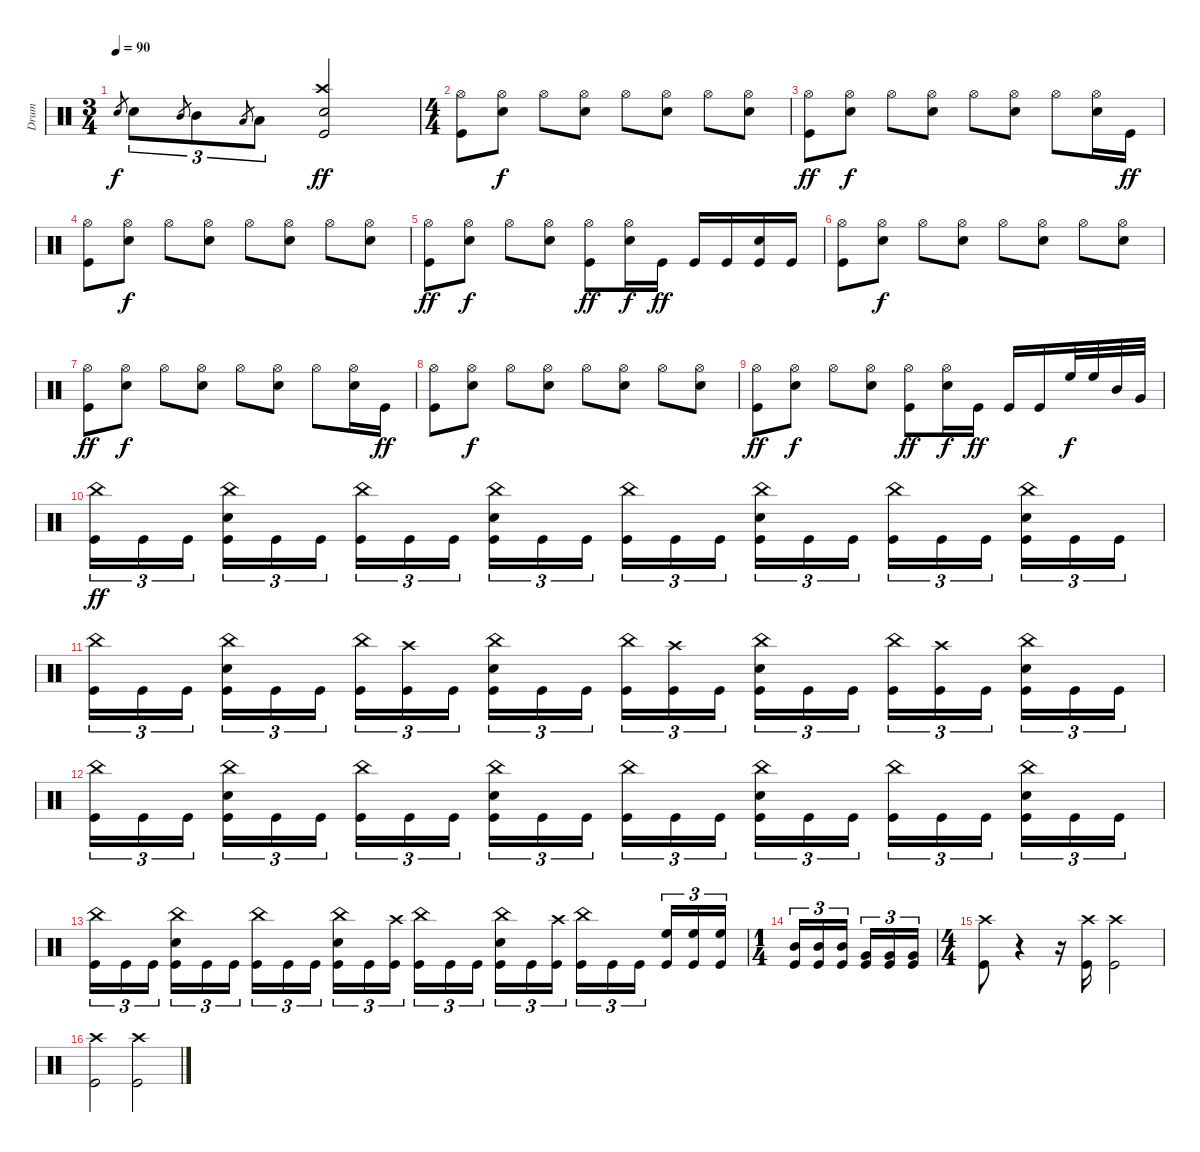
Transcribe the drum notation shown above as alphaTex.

\track ("Drum" "Drum") {instrument percussion}
\staff {score}
\articulation defaults
\ts (3 4)
\tempo 90
\clef neutral
\ks c "Snare (hit) 2".8{gr dy f} "Snare (hit) 2".8{tu (3 2)} "Mid Tom (hit)".8{gr} "Mid Tom (hit)".8{tu (3 2)} "Low Tom (hit)".8{gr} "Low Tom (hit)".8{tu (3 2)}
("Crash high (hit)" "Snare (hit) 2" "Kick (hit)").2{dy ff} |
\ts (4 4)
("Hi-Hat (open)" "Kick (hit)").8 ("Hi-Hat (open)" "Snare (hit) 2").8{dy f} "Hi-Hat (open)".8 ("Hi-Hat (open)" "Snare (hit) 2").8 "Hi-Hat (open)".8 ("Hi-Hat (open)" "Snare (hit) 2").8 "Hi-Hat (open)".8 ("Hi-Hat (open)" "Snare (hit) 2").8 |
("Hi-Hat (open)" "Kick (hit)").8{dy ff} ("Hi-Hat (open)" "Snare (hit) 2").8{dy f} "Hi-Hat (open)".8 ("Hi-Hat (open)" "Snare (hit) 2").8 "Hi-Hat (open)".8 ("Hi-Hat (open)" "Snare (hit) 2").8 "Hi-Hat (open)".8 ("Hi-Hat (open)" "Snare (hit) 2").16 "Kick (hit)".16{dy ff} |
("Hi-Hat (open)" "Kick (hit)").8 ("Hi-Hat (open)" "Snare (hit) 2").8{dy f} "Hi-Hat (open)".8 ("Hi-Hat (open)" "Snare (hit) 2").8 "Hi-Hat (open)".8 ("Hi-Hat (open)" "Snare (hit) 2").8 "Hi-Hat (open)".8 ("Hi-Hat (open)" "Snare (hit) 2").8 |
("Hi-Hat (open)" "Kick (hit)").8{dy ff} ("Hi-Hat (open)" "Snare (hit) 2").8{dy f} "Hi-Hat (open)".8 ("Hi-Hat (open)" "Snare (hit) 2").8 ("Hi-Hat (open)" "Kick (hit)").8{dy ff} ("Hi-Hat (open)" "Snare (hit) 2").16{dy f} "Kick (hit)".16{dy ff} "Kick (hit)".16 "Kick (hit)".16 ("Snare (hit) 2" "Kick (hit)").16 "Kick (hit)".16 |
("Hi-Hat (open)" "Kick (hit)").8 ("Hi-Hat (open)" "Snare (hit) 2").8{dy f} "Hi-Hat (open)".8 ("Hi-Hat (open)" "Snare (hit) 2").8 "Hi-Hat (open)".8 ("Hi-Hat (open)" "Snare (hit) 2").8 "Hi-Hat (open)".8 ("Hi-Hat (open)" "Snare (hit) 2").8 |
("Hi-Hat (open)" "Kick (hit)").8{dy ff} ("Hi-Hat (open)" "Snare (hit) 2").8{dy f} "Hi-Hat (open)".8 ("Hi-Hat (open)" "Snare (hit) 2").8 "Hi-Hat (open)".8 ("Hi-Hat (open)" "Snare (hit) 2").8 "Hi-Hat (open)".8 ("Hi-Hat (open)" "Snare (hit) 2").16 "Kick (hit)".16{dy ff} |
("Hi-Hat (open)" "Kick (hit)").8 ("Hi-Hat (open)" "Snare (hit) 2").8{dy f} "Hi-Hat (open)".8 ("Hi-Hat (open)" "Snare (hit) 2").8 "Hi-Hat (open)".8 ("Hi-Hat (open)" "Snare (hit) 2").8 "Hi-Hat (open)".8 ("Hi-Hat (open)" "Snare (hit) 2").8 |
("Hi-Hat (open)" "Kick (hit)").8{dy ff} ("Hi-Hat (open)" "Snare (hit) 2").8{dy f} "Hi-Hat (open)".8 ("Hi-Hat (open)" "Snare (hit) 2").8 ("Hi-Hat (open)" "Kick (hit)").8{dy ff} ("Hi-Hat (open)" "Snare (hit) 2").16{dy f} "Kick (hit)".16{dy ff} "Kick (hit)".16 "Kick (hit)".16 "High Floor Tom (hit)".32{dy f} "High Floor Tom (hit)".32 "Mid Tom (hit)".32 "Very Low Tom (hit)".32 |
("China (hit)" "Kick (hit)").16{tu (3 2) dy ff} "Kick (hit)".16{tu (3 2)} "Kick (hit)".16{tu (3 2) beam splitsecondary} ("China (hit)" "Snare (hit) 2" "Kick (hit)").16{tu (3 2)} "Kick (hit)".16{tu (3 2)} "Kick (hit)".16{tu (3 2)} ("China (hit)" "Kick (hit)").16{tu (3 2)} "Kick (hit)".16{tu (3 2)} "Kick (hit)".16{tu (3 2) beam splitsecondary} ("China (hit)" "Snare (hit) 2" "Kick (hit)").16{tu (3 2)} "Kick (hit)".16{tu (3 2)} "Kick (hit)".16{tu (3 2)} ("China (hit)" "Kick (hit)").16{tu (3 2)} "Kick (hit)".16{tu (3 2)} "Kick (hit)".16{tu (3 2) beam splitsecondary} ("China (hit)" "Snare (hit) 2" "Kick (hit)").16{tu (3 2)} "Kick (hit)".16{tu (3 2)} "Kick (hit)".16{tu (3 2)} ("China (hit)" "Kick (hit)").16{tu (3 2)} "Kick (hit)".16{tu (3 2)} "Kick (hit)".16{tu (3 2) beam splitsecondary} ("China (hit)" "Snare (hit) 2" "Kick (hit)").16{tu (3 2)} "Kick (hit)".16{tu (3 2)} "Kick (hit)".16{tu (3 2)} |
("China (hit)" "Kick (hit)").16{tu (3 2)} "Kick (hit)".16{tu (3 2)} "Kick (hit)".16{tu (3 2) beam splitsecondary} ("China (hit)" "Snare (hit) 2" "Kick (hit)").16{tu (3 2)} "Kick (hit)".16{tu (3 2)} "Kick (hit)".16{tu (3 2)} ("China (hit)" "Kick (hit)").16{tu (3 2)} ("Crash high (hit)" "Kick (hit)").16{tu (3 2)} "Kick (hit)".16{tu (3 2) beam splitsecondary} ("China (hit)" "Snare (hit) 2" "Kick (hit)").16{tu (3 2)} "Kick (hit)".16{tu (3 2)} "Kick (hit)".16{tu (3 2)} ("China (hit)" "Kick (hit)").16{tu (3 2)} ("Crash high (hit)" "Kick (hit)").16{tu (3 2)} "Kick (hit)".16{tu (3 2) beam splitsecondary} ("China (hit)" "Snare (hit) 2" "Kick (hit)").16{tu (3 2)} "Kick (hit)".16{tu (3 2)} "Kick (hit)".16{tu (3 2)} ("China (hit)" "Kick (hit)").16{tu (3 2)} ("Crash high (hit)" "Kick (hit)").16{tu (3 2)} "Kick (hit)".16{tu (3 2) beam splitsecondary} ("China (hit)" "Snare (hit) 2" "Kick (hit)").16{tu (3 2)} "Kick (hit)".16{tu (3 2)} "Kick (hit)".16{tu (3 2)} |
("China (hit)" "Kick (hit)").16{tu (3 2)} "Kick (hit)".16{tu (3 2)} "Kick (hit)".16{tu (3 2) beam splitsecondary} ("China (hit)" "Snare (hit) 2" "Kick (hit)").16{tu (3 2)} "Kick (hit)".16{tu (3 2)} "Kick (hit)".16{tu (3 2)} ("China (hit)" "Kick (hit)").16{tu (3 2)} "Kick (hit)".16{tu (3 2)} "Kick (hit)".16{tu (3 2) beam splitsecondary} ("China (hit)" "Snare (hit) 2" "Kick (hit)").16{tu (3 2)} "Kick (hit)".16{tu (3 2)} "Kick (hit)".16{tu (3 2)} ("China (hit)" "Kick (hit)").16{tu (3 2)} "Kick (hit)".16{tu (3 2)} "Kick (hit)".16{tu (3 2) beam splitsecondary} ("China (hit)" "Snare (hit) 2" "Kick (hit)").16{tu (3 2)} "Kick (hit)".16{tu (3 2)} "Kick (hit)".16{tu (3 2)} ("China (hit)" "Kick (hit)").16{tu (3 2)} "Kick (hit)".16{tu (3 2)} "Kick (hit)".16{tu (3 2) beam splitsecondary} ("China (hit)" "Snare (hit) 2" "Kick (hit)").16{tu (3 2)} "Kick (hit)".16{tu (3 2)} "Kick (hit)".16{tu (3 2)} |
("China (hit)" "Kick (hit)").16{tu (3 2)} "Kick (hit)".16{tu (3 2)} "Kick (hit)".16{tu (3 2) beam splitsecondary} ("China (hit)" "Snare (hit) 2" "Kick (hit)").16{tu (3 2)} "Kick (hit)".16{tu (3 2)} "Kick (hit)".16{tu (3 2)} ("China (hit)" "Kick (hit)").16{tu (3 2)} "Kick (hit)".16{tu (3 2)} "Kick (hit)".16{tu (3 2) beam splitsecondary} ("China (hit)" "Snare (hit) 2" "Kick (hit)").16{tu (3 2)} "Kick (hit)".16{tu (3 2)} ("Crash high (hit)" "Kick (hit)").16{tu (3 2)} ("China (hit)" "Kick (hit)").16{tu (3 2)} "Kick (hit)".16{tu (3 2)} "Kick (hit)".16{tu (3 2) beam splitsecondary} ("China (hit)" "Snare (hit) 2" "Kick (hit)").16{tu (3 2)} "Kick (hit)".16{tu (3 2)} ("Crash high (hit)" "Kick (hit)").16{tu (3 2)} ("China (hit)" "Kick (hit)").16{tu (3 2)} "Kick (hit)".16{tu (3 2)} "Kick (hit)".16{tu (3 2) beam splitsecondary} ("High Floor Tom (hit)" "Kick (hit)").16{tu (3 2)} ("High Floor Tom (hit)" "Kick (hit)").16{tu (3 2)} ("High Floor Tom (hit)" "Kick (hit)").16{tu (3 2)} |
\ts (1 4)
("Mid Tom (hit)" "Kick (hit)").16{tu (3 2)} ("Mid Tom (hit)" "Kick (hit)").16{tu (3 2)} ("Mid Tom (hit)" "Kick (hit)").16{tu (3 2) beam splitsecondary} ("Very Low Tom (hit)" "Kick (hit)").16{tu (3 2)} ("Very Low Tom (hit)" "Kick (hit)").16{tu (3 2)} ("Very Low Tom (hit)" "Kick (hit)").16{tu (3 2)} |
\ts (4 4)
("Crash high (hit)" "Kick (hit)").8 r.4 r.16 ("Crash high (hit)" "Kick (hit)").16 ("Crash high (hit)" "Kick (hit)").2 |
("Crash high (hit)" "Kick (hit)").2 ("Crash high (hit)" "Kick (hit)").2
